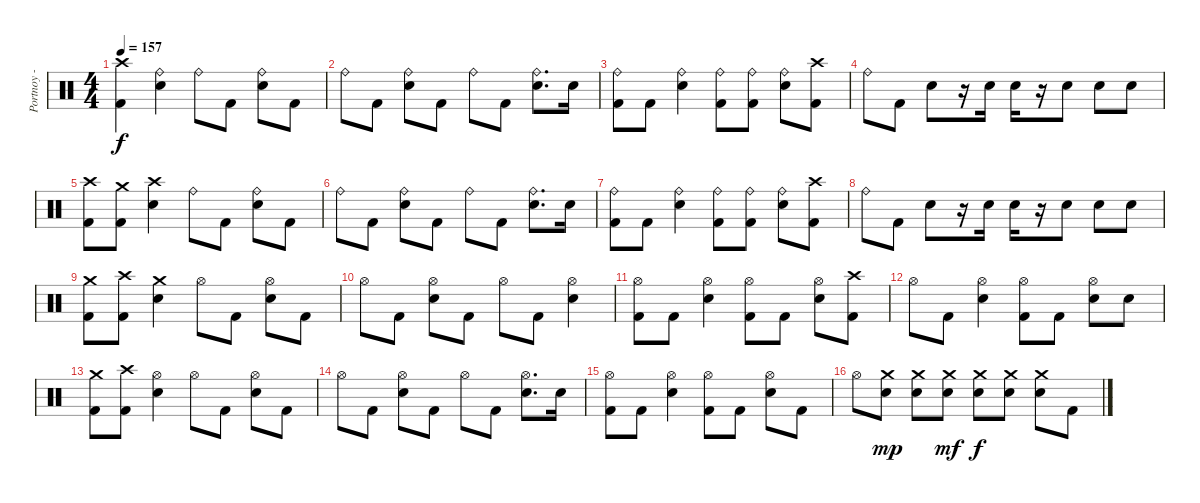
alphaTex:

\track ("Portnoy - Drums" "Portnoy - ") {instrument percussion}
\staff {score}
\articulation defaults
\ts (4 4)
\tempo 157
\clef neutral
\ks c
("Kick (hit) 2" "Crash high (hit)").4{dy f} ("Electric Snare (hit)" "Ride (bell)").4 "Ride (bell)".8 "Kick (hit) 2".8 ("Electric Snare (hit)" "Ride (bell)").8 "Kick (hit) 2".8 |
"Ride (bell)".8 "Kick (hit) 2".8 ("Electric Snare (hit)" "Ride (bell)").8 "Kick (hit) 2".8 "Ride (bell)".8 "Kick (hit) 2".8 ("Electric Snare (hit)" "Ride (bell)").8{d} "Electric Snare (hit)".16 |
("Kick (hit) 2" "Ride (bell)").8 "Kick (hit) 2".8 ("Electric Snare (hit)" "Ride (bell)").4 ("Kick (hit) 2" "Ride (bell)").8 ("Kick (hit) 2" "Ride (bell)").8 ("Electric Snare (hit)" "Ride (bell)").8 ("Kick (hit) 2" "Crash high (hit)").8 |
"Ride (bell)".8 "Kick (hit) 2".8 "Electric Snare (hit)".8 r.16 "Electric Snare (hit)".16 "Electric Snare (hit)".16 r.16 "Electric Snare (hit)".8 "Electric Snare (hit)".8 "Electric Snare (hit)".8 |
("Kick (hit) 2" "Crash high (hit)").8 ("Kick (hit) 2" "Crash medium (hit)").8 ("Electric Snare (hit)" "Crash high (hit)").4 "Ride (bell)".8 "Kick (hit) 2".8 ("Electric Snare (hit)" "Ride (bell)").8 "Kick (hit) 2".8 |
"Ride (bell)".8 "Kick (hit) 2".8 ("Electric Snare (hit)" "Ride (bell)").8 "Kick (hit) 2".8 "Ride (bell)".8 "Kick (hit) 2".8 ("Electric Snare (hit)" "Ride (bell)").8{d} "Electric Snare (hit)".16 |
("Kick (hit) 2" "Ride (bell)").8 "Kick (hit) 2".8 ("Electric Snare (hit)" "Ride (bell)").4 ("Kick (hit) 2" "Ride (bell)").8 ("Kick (hit) 2" "Ride (bell)").8 ("Electric Snare (hit)" "Ride (bell)").8 ("Kick (hit) 2" "Crash high (hit)").8 |
"Ride (bell)".8 "Kick (hit) 2".8 "Electric Snare (hit)".8 r.16 "Electric Snare (hit)".16 "Electric Snare (hit)".16 r.16 "Electric Snare (hit)".8 "Electric Snare (hit)".8 "Electric Snare (hit)".8 |
("Crash medium (hit)" "Kick (hit) 2").8 ("Kick (hit) 2" "Crash high (hit)").8 ("Electric Snare (hit)" "Crash medium (hit)").4 "Hi-Hat (open)".8 "Kick (hit) 2".8 ("Electric Snare (hit)" "Hi-Hat (open)").8 "Kick (hit) 2".8 |
"Hi-Hat (open)".8 "Kick (hit) 2".8 ("Hi-Hat (open)" "Electric Snare (hit)").8 "Kick (hit) 2".8 "Hi-Hat (open)".8 "Kick (hit) 2".8 ("Hi-Hat (open)" "Electric Snare (hit)").4 |
("Kick (hit) 2" "Hi-Hat (open)").8 "Kick (hit) 2".8 ("Electric Snare (hit)" "Hi-Hat (open)").4 ("Kick (hit) 2" "Hi-Hat (open)").8 "Kick (hit) 2".8 ("Hi-Hat (open)" "Electric Snare (hit)").8 ("Kick (hit) 2" "Crash high (hit)").8 |
"Hi-Hat (open)".8 "Kick (hit) 2".8 ("Electric Snare (hit)" "Hi-Hat (open)").4 ("Kick (hit) 2" "Hi-Hat (open)").8 "Kick (hit) 2".8 ("Electric Snare (hit)" "Hi-Hat (open)").8 "Electric Snare (hit)".8 |
("Kick (hit) 2" "Crash medium (hit)").8 ("Kick (hit) 2" "Crash high (hit)").8 ("Electric Snare (hit)" "Hi-Hat (open)").4 "Hi-Hat (open)".8 "Kick (hit) 2".8 ("Electric Snare (hit)" "Hi-Hat (open)").8 "Kick (hit) 2".8 |
"Hi-Hat (open)".8 "Kick (hit) 2".8 ("Hi-Hat (open)" "Electric Snare (hit)").8 "Kick (hit) 2".8 "Hi-Hat (open)".8 "Kick (hit) 2".8 ("Hi-Hat (open)" "Electric Snare (hit)").8{d} "Electric Snare (hit)".16 |
("Kick (hit) 2" "Hi-Hat (open)").8 "Kick (hit) 2".8 ("Electric Snare (hit)" "Hi-Hat (open)").4 ("Kick (hit) 2" "Hi-Hat (open)").8 "Kick (hit) 2".8 ("Electric Snare (hit)" "Hi-Hat (open)").8 "Kick (hit) 2".8 |
"Hi-Hat (open)".8 ("Crash medium (hit)" "Electric Snare (hit)").8{dy mp} ("Crash medium (hit)" "Electric Snare (hit)").8 ("Crash medium (hit)" "Electric Snare (hit)").8{dy mf} ("Crash medium (hit)" "Electric Snare (hit)").8{dy f} ("Crash medium (hit)" "Electric Snare (hit)").8 ("Electric Snare (hit)" "Crash medium (hit)").8 "Kick (hit) 2".8
